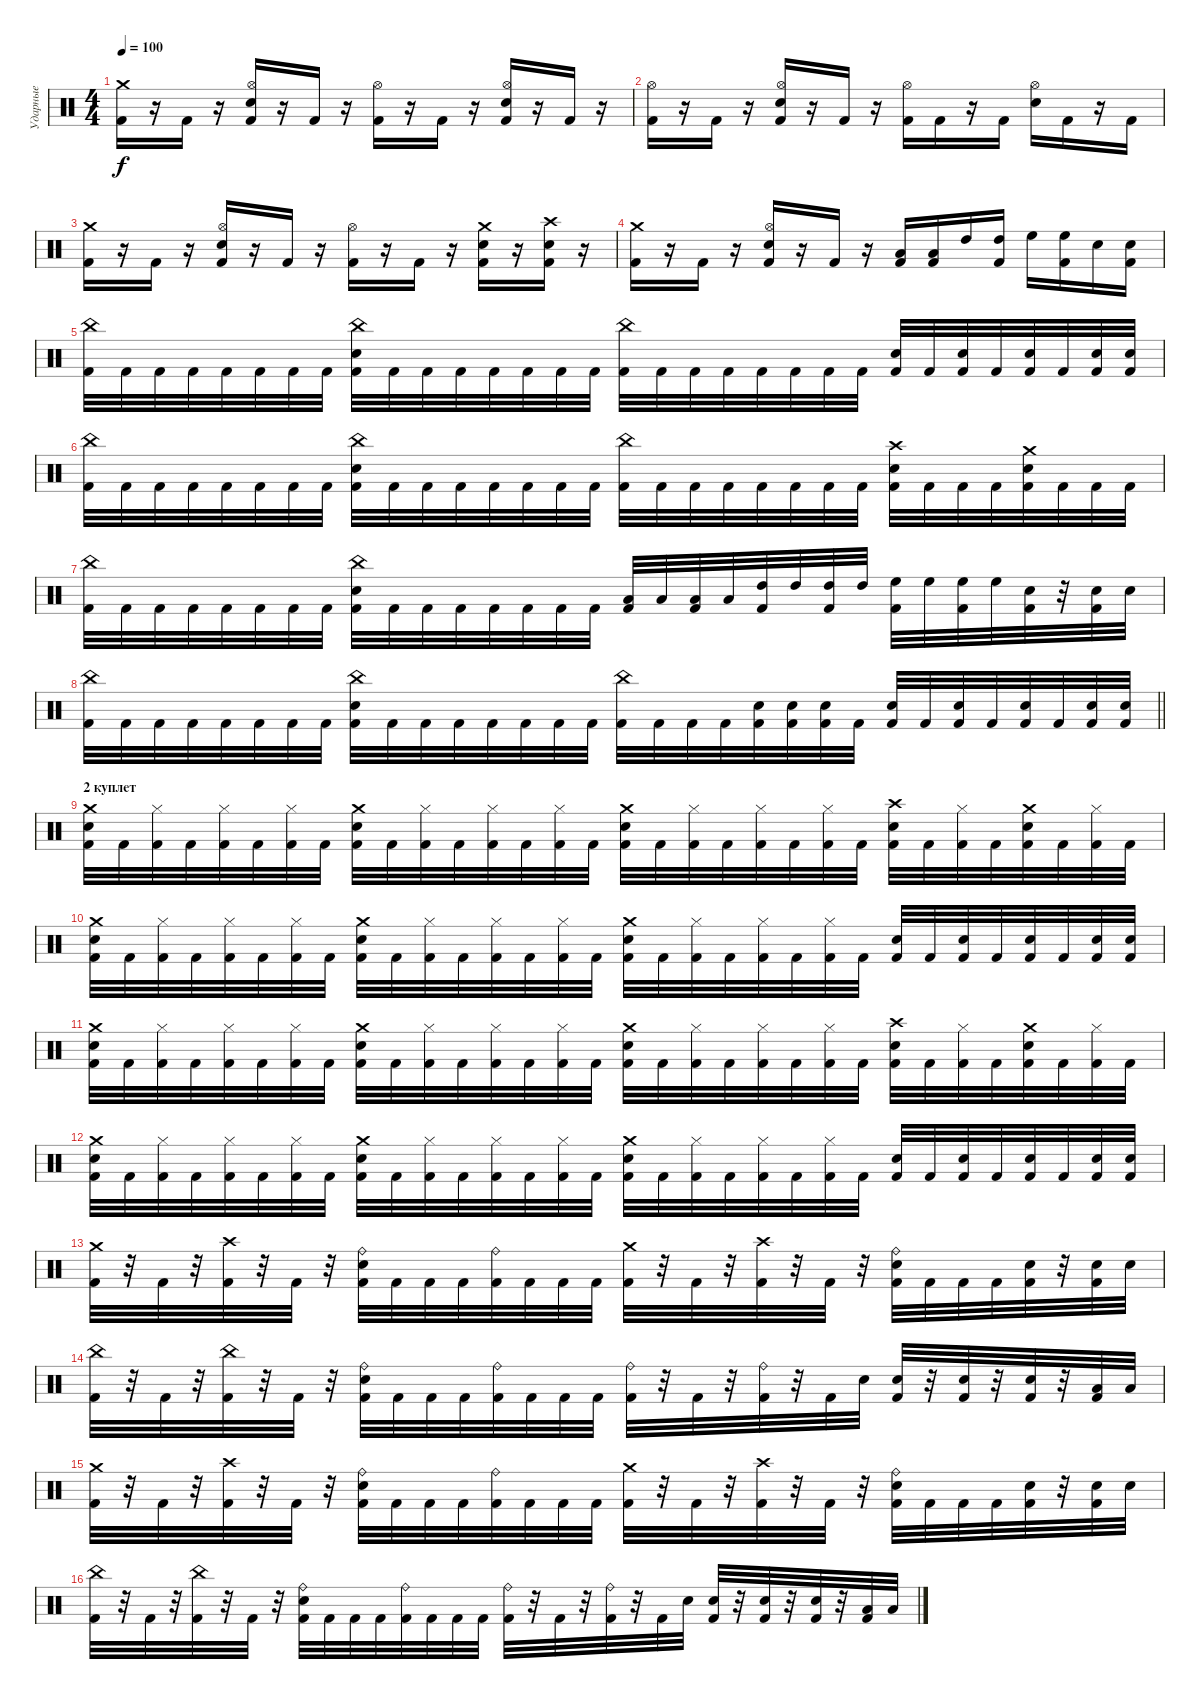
\track ("Ударные" "Ударные") {instrument percussion}
\staff {score}
\articulation defaults
\ts (4 4)
\tempo 100
\clef neutral
\ks c
("Crash medium (hit)" "Kick (hit) 2").16{dy f} r.16 "Kick (hit) 2".16 r.16 ("Hi-Hat (open)" "Snare (hit) 2" "Kick (hit) 2").16 r.16 "Kick (hit) 2".16 r.16 ("Hi-Hat (open)" "Kick (hit) 2").16 r.16 "Kick (hit) 2".16 r.16 ("Hi-Hat (open)" "Snare (hit) 2" "Kick (hit) 2").16 r.16 "Kick (hit) 2".16 r.16 |
("Hi-Hat (open)" "Kick (hit) 2").16 r.16 "Kick (hit) 2".16 r.16 ("Hi-Hat (open)" "Snare (hit) 2" "Kick (hit) 2").16 r.16 "Kick (hit) 2".16 r.16 ("Hi-Hat (open)" "Kick (hit) 2").16 "Kick (hit) 2".16 r.16 "Kick (hit) 2".16 ("Hi-Hat (open)" "Snare (hit) 2").16 "Kick (hit) 2".16 r.16 "Kick (hit) 2".16 |
("Crash medium (hit)" "Kick (hit) 2").16 r.16 "Kick (hit) 2".16 r.16 ("Hi-Hat (open)" "Snare (hit) 2" "Kick (hit) 2").16 r.16 "Kick (hit) 2".16 r.16 ("Hi-Hat (open)" "Kick (hit) 2").16 r.16 "Kick (hit) 2".16 r.16 ("Crash medium (hit)" "Snare (hit) 2" "Kick (hit) 2").16 r.16 ("Crash high (hit)" "Snare (hit) 2" "Kick (hit) 2").16 r.16 |
("Crash medium (hit)" "Kick (hit) 2").16 r.16 "Kick (hit) 2".16 r.16 ("Hi-Hat (open)" "Snare (hit) 2" "Kick (hit) 2").16 r.16 "Kick (hit) 2".16 r.16 ("Low Tom (hit)" "Kick (hit) 2").16 ("Low Tom (hit)" "Kick (hit) 2").16 "High Tom (hit)".16 ("High Tom (hit)" "Kick (hit) 2").16 "High Floor Tom (hit)".16 ("High Floor Tom (hit)" "Kick (hit) 2").16 "Snare (hit) 2".16 ("Snare (hit) 2" "Kick (hit) 2").16 |
("China (hit)" "Kick (hit) 2").32 "Kick (hit) 2".32 "Kick (hit) 2".32 "Kick (hit) 2".32 "Kick (hit) 2".32 "Kick (hit) 2".32 "Kick (hit) 2".32 "Kick (hit) 2".32 ("China (hit)" "Snare (hit) 2" "Kick (hit) 2").32 "Kick (hit) 2".32 "Kick (hit) 2".32 "Kick (hit) 2".32 "Kick (hit) 2".32 "Kick (hit) 2".32 "Kick (hit) 2".32 "Kick (hit) 2".32 ("China (hit)" "Kick (hit) 2").32 "Kick (hit) 2".32 "Kick (hit) 2".32 "Kick (hit) 2".32 "Kick (hit) 2".32 "Kick (hit) 2".32 "Kick (hit) 2".32 "Kick (hit) 2".32 ("Snare (hit) 2" "Kick (hit) 2").32 "Kick (hit) 2".32 ("Snare (hit) 2" "Kick (hit) 2").32 "Kick (hit) 2".32 ("Snare (hit) 2" "Kick (hit) 2").32 "Kick (hit) 2".32 ("Snare (hit) 2" "Kick (hit) 2").32 ("Snare (hit) 2" "Kick (hit) 2").32 |
("China (hit)" "Kick (hit) 2").32 "Kick (hit) 2".32 "Kick (hit) 2".32 "Kick (hit) 2".32 "Kick (hit) 2".32 "Kick (hit) 2".32 "Kick (hit) 2".32 "Kick (hit) 2".32 ("China (hit)" "Snare (hit) 2" "Kick (hit) 2").32 "Kick (hit) 2".32 "Kick (hit) 2".32 "Kick (hit) 2".32 "Kick (hit) 2".32 "Kick (hit) 2".32 "Kick (hit) 2".32 "Kick (hit) 2".32 ("China (hit)" "Kick (hit) 2").32 "Kick (hit) 2".32 "Kick (hit) 2".32 "Kick (hit) 2".32 "Kick (hit) 2".32 "Kick (hit) 2".32 "Kick (hit) 2".32 "Kick (hit) 2".32 ("Crash high (hit)" "Snare (hit) 2" "Kick (hit) 2").32 "Kick (hit) 2".32 "Kick (hit) 2".32 "Kick (hit) 2".32 ("Crash medium (hit)" "Snare (hit) 2" "Kick (hit) 2").32 "Kick (hit) 2".32 "Kick (hit) 2".32 "Kick (hit) 2".32 |
("China (hit)" "Kick (hit) 2").32 "Kick (hit) 2".32 "Kick (hit) 2".32 "Kick (hit) 2".32 "Kick (hit) 2".32 "Kick (hit) 2".32 "Kick (hit) 2".32 "Kick (hit) 2".32 ("China (hit)" "Snare (hit) 2" "Kick (hit) 2").32 "Kick (hit) 2".32 "Kick (hit) 2".32 "Kick (hit) 2".32 "Kick (hit) 2".32 "Kick (hit) 2".32 "Kick (hit) 2".32 "Kick (hit) 2".32 ("Low Tom (hit)" "Kick (hit) 2").32 "Low Tom (hit)".32 ("Low Tom (hit)" "Kick (hit) 2").32 "Low Tom (hit)".32 ("High Tom (hit)" "Kick (hit) 2").32 "High Tom (hit)".32 ("High Tom (hit)" "Kick (hit) 2").32 "High Tom (hit)".32 ("High Floor Tom (hit)" "Kick (hit) 2").32 "High Floor Tom (hit)".32 ("High Floor Tom (hit)" "Kick (hit) 2").32 "High Floor Tom (hit)".32 ("Snare (hit) 2" "Kick (hit) 2").32 r.32 ("Snare (hit) 2" "Kick (hit) 2").32 "Snare (hit) 2".32 |
\barLineRight lightlight
("China (hit)" "Kick (hit) 2").32 "Kick (hit) 2".32 "Kick (hit) 2".32 "Kick (hit) 2".32 "Kick (hit) 2".32 "Kick (hit) 2".32 "Kick (hit) 2".32 "Kick (hit) 2".32 ("China (hit)" "Snare (hit) 2" "Kick (hit) 2").32 "Kick (hit) 2".32 "Kick (hit) 2".32 "Kick (hit) 2".32 "Kick (hit) 2".32 "Kick (hit) 2".32 "Kick (hit) 2".32 "Kick (hit) 2".32 ("China (hit)" "Kick (hit) 2").32 "Kick (hit) 2".32 "Kick (hit) 2".32 "Kick (hit) 2".32 ("Snare (hit) 2" "Kick (hit) 2").32 ("Snare (hit) 2" "Kick (hit) 2").32 ("Snare (hit) 2" "Kick (hit) 2").32 "Kick (hit) 2".32 ("Snare (hit) 2" "Kick (hit) 2").32 "Kick (hit) 2".32 ("Snare (hit) 2" "Kick (hit) 2").32 "Kick (hit) 2".32 ("Snare (hit) 2" "Kick (hit) 2").32 "Kick (hit) 2".32 ("Snare (hit) 2" "Kick (hit) 2").32 ("Snare (hit) 2" "Kick (hit) 2").32 |
\section ("" "2 куплет")
("Snare (hit) 2" "Crash medium (hit)" "Kick (hit) 2").32 "Kick (hit) 2".32 ("Hi-Hat (closed)" "Kick (hit) 2").32 "Kick (hit) 2".32 ("Hi-Hat (closed)" "Kick (hit) 2").32 "Kick (hit) 2".32 ("Hi-Hat (closed)" "Kick (hit) 2").32 "Kick (hit) 2".32 ("Snare (hit) 2" "Crash medium (hit)" "Kick (hit) 2").32 "Kick (hit) 2".32 ("Hi-Hat (closed)" "Kick (hit) 2").32 "Kick (hit) 2".32 ("Hi-Hat (closed)" "Kick (hit) 2").32 "Kick (hit) 2".32 ("Hi-Hat (closed)" "Kick (hit) 2").32 "Kick (hit) 2".32 ("Snare (hit) 2" "Crash medium (hit)" "Kick (hit) 2").32 "Kick (hit) 2".32 ("Hi-Hat (closed)" "Kick (hit) 2").32 "Kick (hit) 2".32 ("Hi-Hat (closed)" "Kick (hit) 2").32 "Kick (hit) 2".32 ("Hi-Hat (closed)" "Kick (hit) 2").32 "Kick (hit) 2".32 ("Snare (hit) 2" "Crash high (hit)" "Kick (hit) 2").32 "Kick (hit) 2".32 ("Hi-Hat (closed)" "Kick (hit) 2").32 "Kick (hit) 2".32 ("Snare (hit) 2" "Crash medium (hit)" "Kick (hit) 2").32 "Kick (hit) 2".32 ("Hi-Hat (closed)" "Kick (hit) 2").32 "Kick (hit) 2".32 |
("Snare (hit) 2" "Crash medium (hit)" "Kick (hit) 2").32 "Kick (hit) 2".32 ("Hi-Hat (closed)" "Kick (hit) 2").32 "Kick (hit) 2".32 ("Hi-Hat (closed)" "Kick (hit) 2").32 "Kick (hit) 2".32 ("Hi-Hat (closed)" "Kick (hit) 2").32 "Kick (hit) 2".32 ("Snare (hit) 2" "Crash medium (hit)" "Kick (hit) 2").32 "Kick (hit) 2".32 ("Hi-Hat (closed)" "Kick (hit) 2").32 "Kick (hit) 2".32 ("Hi-Hat (closed)" "Kick (hit) 2").32 "Kick (hit) 2".32 ("Hi-Hat (closed)" "Kick (hit) 2").32 "Kick (hit) 2".32 ("Snare (hit) 2" "Crash medium (hit)" "Kick (hit) 2").32 "Kick (hit) 2".32 ("Hi-Hat (closed)" "Kick (hit) 2").32 "Kick (hit) 2".32 ("Hi-Hat (closed)" "Kick (hit) 2").32 "Kick (hit) 2".32 ("Hi-Hat (closed)" "Kick (hit) 2").32 "Kick (hit) 2".32 ("Snare (hit) 2" "Kick (hit) 2").32 "Kick (hit) 2".32 ("Snare (hit) 2" "Kick (hit) 2").32 "Kick (hit) 2".32 ("Snare (hit) 2" "Kick (hit) 2").32 "Kick (hit) 2".32 ("Snare (hit) 2" "Kick (hit) 2").32 ("Snare (hit) 2" "Kick (hit) 2").32 |
("Snare (hit) 2" "Crash medium (hit)" "Kick (hit) 2").32 "Kick (hit) 2".32 ("Hi-Hat (closed)" "Kick (hit) 2").32 "Kick (hit) 2".32 ("Hi-Hat (closed)" "Kick (hit) 2").32 "Kick (hit) 2".32 ("Hi-Hat (closed)" "Kick (hit) 2").32 "Kick (hit) 2".32 ("Snare (hit) 2" "Crash medium (hit)" "Kick (hit) 2").32 "Kick (hit) 2".32 ("Hi-Hat (closed)" "Kick (hit) 2").32 "Kick (hit) 2".32 ("Hi-Hat (closed)" "Kick (hit) 2").32 "Kick (hit) 2".32 ("Hi-Hat (closed)" "Kick (hit) 2").32 "Kick (hit) 2".32 ("Snare (hit) 2" "Crash medium (hit)" "Kick (hit) 2").32 "Kick (hit) 2".32 ("Hi-Hat (closed)" "Kick (hit) 2").32 "Kick (hit) 2".32 ("Hi-Hat (closed)" "Kick (hit) 2").32 "Kick (hit) 2".32 ("Hi-Hat (closed)" "Kick (hit) 2").32 "Kick (hit) 2".32 ("Snare (hit) 2" "Crash high (hit)" "Kick (hit) 2").32 "Kick (hit) 2".32 ("Hi-Hat (closed)" "Kick (hit) 2").32 "Kick (hit) 2".32 ("Snare (hit) 2" "Crash medium (hit)" "Kick (hit) 2").32 "Kick (hit) 2".32 ("Hi-Hat (closed)" "Kick (hit) 2").32 "Kick (hit) 2".32 |
("Snare (hit) 2" "Crash medium (hit)" "Kick (hit) 2").32 "Kick (hit) 2".32 ("Hi-Hat (closed)" "Kick (hit) 2").32 "Kick (hit) 2".32 ("Hi-Hat (closed)" "Kick (hit) 2").32 "Kick (hit) 2".32 ("Hi-Hat (closed)" "Kick (hit) 2").32 "Kick (hit) 2".32 ("Snare (hit) 2" "Crash medium (hit)" "Kick (hit) 2").32 "Kick (hit) 2".32 ("Hi-Hat (closed)" "Kick (hit) 2").32 "Kick (hit) 2".32 ("Hi-Hat (closed)" "Kick (hit) 2").32 "Kick (hit) 2".32 ("Hi-Hat (closed)" "Kick (hit) 2").32 "Kick (hit) 2".32 ("Snare (hit) 2" "Crash medium (hit)" "Kick (hit) 2").32 "Kick (hit) 2".32 ("Hi-Hat (closed)" "Kick (hit) 2").32 "Kick (hit) 2".32 ("Hi-Hat (closed)" "Kick (hit) 2").32 "Kick (hit) 2".32 ("Hi-Hat (closed)" "Kick (hit) 2").32 "Kick (hit) 2".32 ("Snare (hit) 2" "Kick (hit) 2").32 "Kick (hit) 2".32 ("Snare (hit) 2" "Kick (hit) 2").32 "Kick (hit) 2".32 ("Snare (hit) 2" "Kick (hit) 2").32 "Kick (hit) 2".32 ("Snare (hit) 2" "Kick (hit) 2").32 ("Snare (hit) 2" "Kick (hit) 2").32 |
("Crash medium (hit)" "Kick (hit) 2").32 r.32 "Kick (hit) 2".32 r.32 ("Crash high (hit)" "Kick (hit) 2").32 r.32 "Kick (hit) 2".32 r.32 ("Ride (bell)" "Snare (hit) 2" "Kick (hit) 2").32 "Kick (hit) 2".32 "Kick (hit) 2".32 "Kick (hit) 2".32 ("Ride (bell)" "Kick (hit) 2").32 "Kick (hit) 2".32 "Kick (hit) 2".32 "Kick (hit) 2".32 ("Crash medium (hit)" "Kick (hit) 2").32 r.32 "Kick (hit) 2".32 r.32 ("Crash high (hit)" "Kick (hit) 2").32 r.32 "Kick (hit) 2".32 r.32 ("Ride (bell)" "Snare (hit) 2" "Kick (hit) 2").32 "Kick (hit) 2".32 "Kick (hit) 2".32 "Kick (hit) 2".32 ("Snare (hit) 2" "Kick (hit) 2").32 r.32 ("Snare (hit) 2" "Kick (hit) 2").32 "Snare (hit) 2".32 |
("China (hit)" "Kick (hit) 2").32 r.32 "Kick (hit) 2".32 r.32 ("China (hit)" "Kick (hit) 2").32 r.32 "Kick (hit) 2".32 r.32 ("Ride (bell)" "Snare (hit) 2" "Kick (hit) 2").32 "Kick (hit) 2".32 "Kick (hit) 2".32 "Kick (hit) 2".32 ("Ride (bell)" "Kick (hit) 2").32 "Kick (hit) 2".32 "Kick (hit) 2".32 "Kick (hit) 2".32 ("Ride (bell)" "Kick (hit) 2").32 r.32 "Kick (hit) 2".32 r.32 ("Ride (bell)" "Kick (hit) 2").32 r.32 "Kick (hit) 2".32 "Snare (hit) 2".32 ("Snare (hit) 2" "Kick (hit) 2").32 r.32 ("Snare (hit) 2" "Kick (hit) 2").32 r.32 ("Snare (hit) 2" "Kick (hit) 2").32 r.32 ("Low Tom (hit)" "Kick (hit) 2").32 "Low Tom (hit)".32 |
("Crash medium (hit)" "Kick (hit) 2").32 r.32 "Kick (hit) 2".32 r.32 ("Crash high (hit)" "Kick (hit) 2").32 r.32 "Kick (hit) 2".32 r.32 ("Ride (bell)" "Snare (hit) 2" "Kick (hit) 2").32 "Kick (hit) 2".32 "Kick (hit) 2".32 "Kick (hit) 2".32 ("Ride (bell)" "Kick (hit) 2").32 "Kick (hit) 2".32 "Kick (hit) 2".32 "Kick (hit) 2".32 ("Crash medium (hit)" "Kick (hit) 2").32 r.32 "Kick (hit) 2".32 r.32 ("Crash high (hit)" "Kick (hit) 2").32 r.32 "Kick (hit) 2".32 r.32 ("Ride (bell)" "Snare (hit) 2" "Kick (hit) 2").32 "Kick (hit) 2".32 "Kick (hit) 2".32 "Kick (hit) 2".32 ("Snare (hit) 2" "Kick (hit) 2").32 r.32 ("Snare (hit) 2" "Kick (hit) 2").32 "Snare (hit) 2".32 |
("China (hit)" "Kick (hit) 2").32 r.32 "Kick (hit) 2".32 r.32 ("China (hit)" "Kick (hit) 2").32 r.32 "Kick (hit) 2".32 r.32 ("Ride (bell)" "Snare (hit) 2" "Kick (hit) 2").32 "Kick (hit) 2".32 "Kick (hit) 2".32 "Kick (hit) 2".32 ("Ride (bell)" "Kick (hit) 2").32 "Kick (hit) 2".32 "Kick (hit) 2".32 "Kick (hit) 2".32 ("Ride (bell)" "Kick (hit) 2").32 r.32 "Kick (hit) 2".32 r.32 ("Ride (bell)" "Kick (hit) 2").32 r.32 "Kick (hit) 2".32 "Snare (hit) 2".32 ("Snare (hit) 2" "Kick (hit) 2").32 r.32 ("Snare (hit) 2" "Kick (hit) 2").32 r.32 ("Snare (hit) 2" "Kick (hit) 2").32 r.32 ("Low Tom (hit)" "Kick (hit) 2").32 "Low Tom (hit)".32
